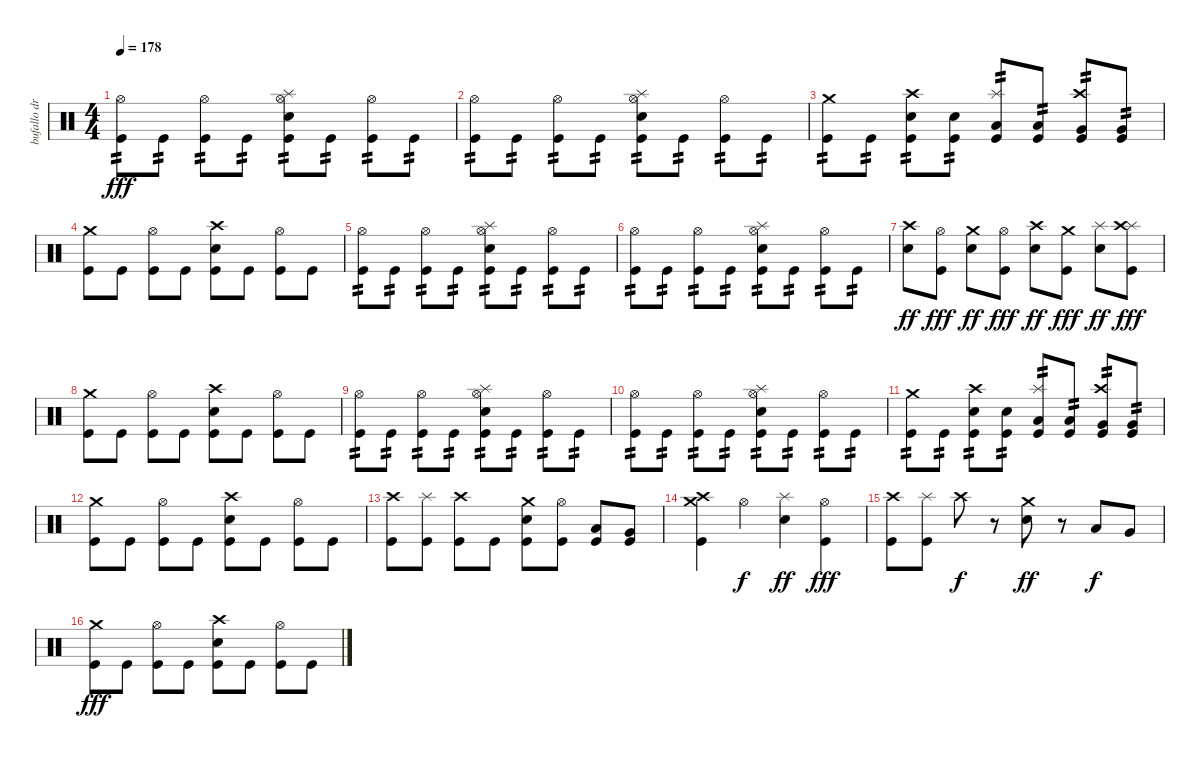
\track ("bufallo drums" "bufallo dr") {instrument percussion}
\staff {score}
\articulation defaults
\ts (4 4)
\tempo 178
\clef neutral
\ks c
("Hi-Hat (open)" "Kick (hit)").8{tp 2 dy fff} "Kick (hit)".8{tp 2} ("Hi-Hat (open)" "Kick (hit)").8{tp 2} "Kick (hit)".8{tp 2} ("Hi-Hat (open)" "Splash (hit)" "Electric Snare (hit)" "Kick (hit)").8{tp 2} "Kick (hit)".8{tp 2} ("Hi-Hat (open)" "Kick (hit)").8{tp 2} "Kick (hit)".8{tp 2} |
("Hi-Hat (open)" "Kick (hit)").8{tp 2} "Kick (hit)".8{tp 2} ("Hi-Hat (open)" "Kick (hit)").8{tp 2} "Kick (hit)".8{tp 2} ("Hi-Hat (open)" "Splash (hit)" "Electric Snare (hit)" "Kick (hit)").8{tp 2} "Kick (hit)".8{tp 2} ("Hi-Hat (open)" "Kick (hit)").8{tp 2} "Kick (hit)".8{tp 2} |
("Crash medium (hit)" "Kick (hit)").8{tp 2} "Kick (hit)".8{tp 2} ("Crash high (hit)" "Electric Snare (hit)" "Kick (hit)").8{tp 2} ("Electric Snare (hit)" "Kick (hit)").8{tp 2} ("Splash (hit)" "Low Tom (hit)" "Kick (hit)").8{tp 2} ("Low Tom (hit)" "Kick (hit)").8{tp 2} ("Crash high (hit)" "Very Low Tom (hit)" "Kick (hit)").8{tp 2} ("Very Low Tom (hit)" "Kick (hit)").8{tp 2} |
("Crash medium (hit)" "Kick (hit)").8 "Kick (hit)".8 ("Hi-Hat (open)" "Kick (hit)").8 "Kick (hit)".8 ("Electric Snare (hit)" "Crash high (hit)" "Kick (hit)").8 "Kick (hit)".8 ("Hi-Hat (open)" "Kick (hit)").8 "Kick (hit)".8 |
("Hi-Hat (open)" "Kick (hit)").8{tp 2} "Kick (hit)".8{tp 2} ("Hi-Hat (open)" "Kick (hit)").8{tp 2} "Kick (hit)".8{tp 2} ("Hi-Hat (open)" "Splash (hit)" "Electric Snare (hit)" "Kick (hit)").8{tp 2} "Kick (hit)".8{tp 2} ("Hi-Hat (open)" "Kick (hit)").8{tp 2} "Kick (hit)".8{tp 2} |
("Hi-Hat (open)" "Kick (hit)").8{tp 2} "Kick (hit)".8{tp 2} ("Hi-Hat (open)" "Kick (hit)").8{tp 2} "Kick (hit)".8{tp 2} ("Hi-Hat (open)" "Splash (hit)" "Electric Snare (hit)" "Kick (hit)").8{tp 2} "Kick (hit)".8{tp 2} ("Hi-Hat (open)" "Kick (hit)").8{tp 2} "Kick (hit)".8{tp 2} |
("Crash high (hit)" "Electric Snare (hit)").8{dy ff} ("Hi-Hat (open)" "Kick (hit)").8{dy fff} ("Crash medium (hit)" "Electric Snare (hit)").8{dy ff} ("Hi-Hat (open)" "Kick (hit)").8{dy fff} ("Crash high (hit)" "Electric Snare (hit)").8{dy ff} ("Crash medium (hit)" "Kick (hit)").8{dy fff} ("Splash (hit)" "Electric Snare (hit)").8{dy ff} ("Splash (hit)" "Crash high (hit)" "Kick (hit)").8{dy fff} |
("Crash medium (hit)" "Kick (hit)").8 "Kick (hit)".8 ("Hi-Hat (open)" "Kick (hit)").8 "Kick (hit)".8 ("Electric Snare (hit)" "Crash high (hit)" "Kick (hit)").8 "Kick (hit)".8 ("Hi-Hat (open)" "Kick (hit)").8 "Kick (hit)".8 |
("Hi-Hat (open)" "Kick (hit)").8{tp 2} "Kick (hit)".8{tp 2} ("Hi-Hat (open)" "Kick (hit)").8{tp 2} "Kick (hit)".8{tp 2} ("Hi-Hat (open)" "Splash (hit)" "Electric Snare (hit)" "Kick (hit)").8{tp 2} "Kick (hit)".8{tp 2} ("Hi-Hat (open)" "Kick (hit)").8{tp 2} "Kick (hit)".8{tp 2} |
("Hi-Hat (open)" "Kick (hit)").8{tp 2} "Kick (hit)".8{tp 2} ("Hi-Hat (open)" "Kick (hit)").8{tp 2} "Kick (hit)".8{tp 2} ("Hi-Hat (open)" "Splash (hit)" "Electric Snare (hit)" "Kick (hit)").8{tp 2} "Kick (hit)".8{tp 2} ("Hi-Hat (open)" "Kick (hit)").8{tp 2} "Kick (hit)".8{tp 2} |
("Crash medium (hit)" "Kick (hit)").8{tp 2} "Kick (hit)".8{tp 2} ("Crash high (hit)" "Electric Snare (hit)" "Kick (hit)").8{tp 2} ("Electric Snare (hit)" "Kick (hit)").8{tp 2} ("Splash (hit)" "Low Tom (hit)" "Kick (hit)").8{tp 2} ("Low Tom (hit)" "Kick (hit)").8{tp 2} ("Crash high (hit)" "Very Low Tom (hit)" "Kick (hit)").8{tp 2} ("Very Low Tom (hit)" "Kick (hit)").8{tp 2} |
("Crash medium (hit)" "Kick (hit)").8 "Kick (hit)".8 ("Hi-Hat (open)" "Kick (hit)").8 "Kick (hit)".8 ("Electric Snare (hit)" "Crash high (hit)" "Kick (hit)").8 "Kick (hit)".8 ("Hi-Hat (open)" "Kick (hit)").8 "Kick (hit)".8 |
("Crash high (hit)" "Kick (hit)").8 ("Splash (hit)" "Kick (hit)").8 ("Crash high (hit)" "Kick (hit)").8 "Kick (hit)".8 ("Crash medium (hit)" "Electric Snare (hit)" "Kick (hit)").8 ("Hi-Hat (open)" "Kick (hit)").8 ("Low Tom (hit)" "Kick (hit)").8 ("Very Low Tom (hit)" "Kick (hit)").8 |
("Crash medium (hit)" "Crash high (hit)" "Kick (hit)").4 "Hi-Hat (open)".4{dy f} ("Splash (hit)" "Electric Snare (hit)").4{dy ff} ("Hi-Hat (open)" "Kick (hit)").4{dy fff} |
("Crash high (hit)" "Kick (hit)").8 ("Splash (hit)" "Kick (hit)").8 "Crash high (hit)".8{dy f} r.8 ("Crash medium (hit)" "Electric Snare (hit)").8{dy ff} r.8 "Low Tom (hit)".8{dy f} "Very Low Tom (hit)".8 |
("Crash medium (hit)" "Kick (hit)").8{dy fff} "Kick (hit)".8 ("Hi-Hat (open)" "Kick (hit)").8 "Kick (hit)".8 ("Electric Snare (hit)" "Crash high (hit)" "Kick (hit)").8 "Kick (hit)".8 ("Hi-Hat (open)" "Kick (hit)").8 "Kick (hit)".8
